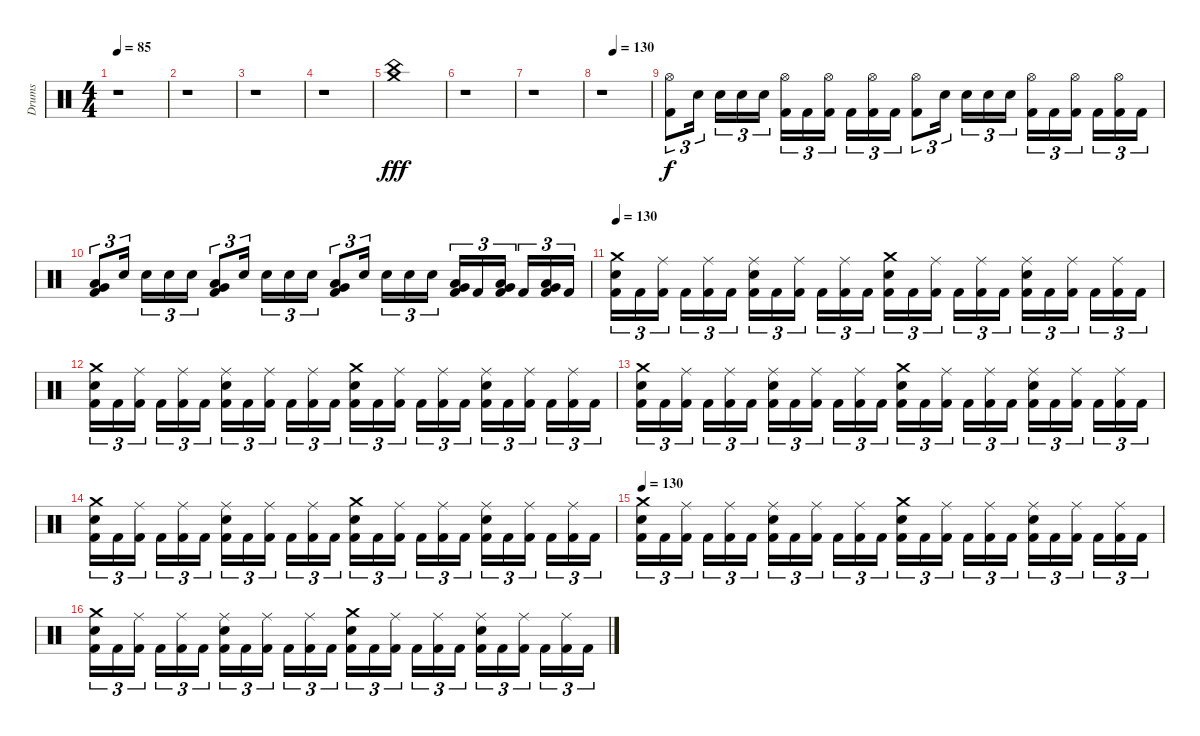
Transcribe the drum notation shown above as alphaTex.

\track ("Drums" "Drums") {instrument percussion}
\staff {score}
\articulation defaults
\ts (4 4)
\tempo 85
\clef neutral
\ks c
r.1{dy f} |
r.1 |
r.1 |
r.1 |
("Crash medium (hit)" "China (hit)").1{dy fff} |
r.1 |
r.1 |
\tempo (130 0.25)
r.1 |
("Kick (hit) 2" "Hi-Hat (open)").8{tu (3 2) dy f} "Electric Snare (hit)".16{tu (3 2)} "Electric Snare (hit)".16{tu (3 2)} "Electric Snare (hit)".16{tu (3 2)} "Electric Snare (hit)".16{tu (3 2)} ("Kick (hit) 2" "Hi-Hat (open)").16{tu (3 2)} "Kick (hit) 2".16{tu (3 2)} ("Kick (hit) 2" "Hi-Hat (open)").16{tu (3 2)} "Kick (hit) 2".16{tu (3 2)} ("Kick (hit) 2" "Hi-Hat (open)").16{tu (3 2)} "Kick (hit) 2".16{tu (3 2)} ("Kick (hit) 2" "Hi-Hat (open)").8{tu (3 2)} "Electric Snare (hit)".16{tu (3 2)} "Electric Snare (hit)".16{tu (3 2)} "Electric Snare (hit)".16{tu (3 2)} "Electric Snare (hit)".16{tu (3 2)} ("Kick (hit) 2" "Hi-Hat (open)").16{tu (3 2)} "Kick (hit) 2".16{tu (3 2)} ("Kick (hit) 2" "Hi-Hat (open)").16{tu (3 2)} "Kick (hit) 2".16{tu (3 2)} ("Kick (hit) 2" "Hi-Hat (open)").16{tu (3 2)} "Kick (hit) 2".16{tu (3 2)} |
("Kick (hit) 2" "Low Tom (hit)" "Very Low Tom (hit)").8{tu (3 2)} "Electric Snare (hit)".16{tu (3 2)} "Electric Snare (hit)".16{tu (3 2)} "Electric Snare (hit)".16{tu (3 2)} "Electric Snare (hit)".16{tu (3 2)} ("Kick (hit) 2" "Low Tom (hit)" "Very Low Tom (hit)").8{tu (3 2)} "Electric Snare (hit)".16{tu (3 2)} "Electric Snare (hit)".16{tu (3 2)} "Electric Snare (hit)".16{tu (3 2)} "Electric Snare (hit)".16{tu (3 2)} ("Kick (hit) 2" "Low Tom (hit)" "Very Low Tom (hit)").8{tu (3 2)} "Electric Snare (hit)".16{tu (3 2)} "Electric Snare (hit)".16{tu (3 2)} "Electric Snare (hit)".16{tu (3 2)} "Electric Snare (hit)".16{tu (3 2)} ("Kick (hit) 2" "Low Tom (hit)" "Very Low Tom (hit)").16{tu (3 2)} "Kick (hit) 2".16{tu (3 2)} ("Kick (hit) 2" "Low Tom (hit)" "Very Low Tom (hit)").16{tu (3 2)} "Kick (hit) 2".16{tu (3 2)} ("Kick (hit) 2" "Low Tom (hit)" "Very Low Tom (hit)").16{tu (3 2)} "Kick (hit) 2".16{tu (3 2)} |
\tempo 130
("Kick (hit) 2" "Electric Snare (hit)" "Crash medium (hit)").16{tu (3 2)} "Kick (hit) 2".16{tu (3 2)} ("Kick (hit) 2" "Ride (middle)").16{tu (3 2)} "Kick (hit) 2".16{tu (3 2)} ("Kick (hit) 2" "Ride (middle)").16{tu (3 2)} "Kick (hit) 2".16{tu (3 2)} ("Kick (hit) 2" "Electric Snare (hit)" "Ride (middle)").16{tu (3 2)} "Kick (hit) 2".16{tu (3 2)} ("Kick (hit) 2" "Ride (middle)").16{tu (3 2)} "Kick (hit) 2".16{tu (3 2)} ("Kick (hit) 2" "Ride (middle)").16{tu (3 2)} "Kick (hit) 2".16{tu (3 2)} ("Kick (hit) 2" "Electric Snare (hit)" "Crash medium (hit)").16{tu (3 2)} "Kick (hit) 2".16{tu (3 2)} ("Kick (hit) 2" "Ride (middle)").16{tu (3 2)} "Kick (hit) 2".16{tu (3 2)} ("Kick (hit) 2" "Ride (middle)").16{tu (3 2)} "Kick (hit) 2".16{tu (3 2)} ("Kick (hit) 2" "Electric Snare (hit)" "Ride (middle)").16{tu (3 2)} "Kick (hit) 2".16{tu (3 2)} ("Kick (hit) 2" "Ride (middle)").16{tu (3 2)} "Kick (hit) 2".16{tu (3 2)} ("Kick (hit) 2" "Ride (middle)").16{tu (3 2)} "Kick (hit) 2".16{tu (3 2)} |
("Kick (hit) 2" "Electric Snare (hit)" "Crash medium (hit)").16{tu (3 2)} "Kick (hit) 2".16{tu (3 2)} ("Kick (hit) 2" "Ride (middle)").16{tu (3 2)} "Kick (hit) 2".16{tu (3 2)} ("Kick (hit) 2" "Ride (middle)").16{tu (3 2)} "Kick (hit) 2".16{tu (3 2)} ("Kick (hit) 2" "Electric Snare (hit)" "Ride (middle)").16{tu (3 2)} "Kick (hit) 2".16{tu (3 2)} ("Kick (hit) 2" "Ride (middle)").16{tu (3 2)} "Kick (hit) 2".16{tu (3 2)} ("Kick (hit) 2" "Ride (middle)").16{tu (3 2)} "Kick (hit) 2".16{tu (3 2)} ("Kick (hit) 2" "Electric Snare (hit)" "Crash medium (hit)").16{tu (3 2)} "Kick (hit) 2".16{tu (3 2)} ("Kick (hit) 2" "Ride (middle)").16{tu (3 2)} "Kick (hit) 2".16{tu (3 2)} ("Kick (hit) 2" "Ride (middle)").16{tu (3 2)} "Kick (hit) 2".16{tu (3 2)} ("Kick (hit) 2" "Electric Snare (hit)" "Ride (middle)").16{tu (3 2)} "Kick (hit) 2".16{tu (3 2)} ("Kick (hit) 2" "Ride (middle)").16{tu (3 2)} "Kick (hit) 2".16{tu (3 2)} ("Kick (hit) 2" "Ride (middle)").16{tu (3 2)} "Kick (hit) 2".16{tu (3 2)} |
("Kick (hit) 2" "Electric Snare (hit)" "Crash medium (hit)").16{tu (3 2)} "Kick (hit) 2".16{tu (3 2)} ("Kick (hit) 2" "Ride (middle)").16{tu (3 2)} "Kick (hit) 2".16{tu (3 2)} ("Kick (hit) 2" "Ride (middle)").16{tu (3 2)} "Kick (hit) 2".16{tu (3 2)} ("Kick (hit) 2" "Electric Snare (hit)" "Ride (middle)").16{tu (3 2)} "Kick (hit) 2".16{tu (3 2)} ("Kick (hit) 2" "Ride (middle)").16{tu (3 2)} "Kick (hit) 2".16{tu (3 2)} ("Kick (hit) 2" "Ride (middle)").16{tu (3 2)} "Kick (hit) 2".16{tu (3 2)} ("Kick (hit) 2" "Electric Snare (hit)" "Crash medium (hit)").16{tu (3 2)} "Kick (hit) 2".16{tu (3 2)} ("Kick (hit) 2" "Ride (middle)").16{tu (3 2)} "Kick (hit) 2".16{tu (3 2)} ("Kick (hit) 2" "Ride (middle)").16{tu (3 2)} "Kick (hit) 2".16{tu (3 2)} ("Kick (hit) 2" "Electric Snare (hit)" "Ride (middle)").16{tu (3 2)} "Kick (hit) 2".16{tu (3 2)} ("Kick (hit) 2" "Ride (middle)").16{tu (3 2)} "Kick (hit) 2".16{tu (3 2)} ("Kick (hit) 2" "Ride (middle)").16{tu (3 2)} "Kick (hit) 2".16{tu (3 2)} |
("Kick (hit) 2" "Electric Snare (hit)" "Crash medium (hit)").16{tu (3 2)} "Kick (hit) 2".16{tu (3 2)} ("Kick (hit) 2" "Ride (middle)").16{tu (3 2)} "Kick (hit) 2".16{tu (3 2)} ("Kick (hit) 2" "Ride (middle)").16{tu (3 2)} "Kick (hit) 2".16{tu (3 2)} ("Kick (hit) 2" "Electric Snare (hit)" "Ride (middle)").16{tu (3 2)} "Kick (hit) 2".16{tu (3 2)} ("Kick (hit) 2" "Ride (middle)").16{tu (3 2)} "Kick (hit) 2".16{tu (3 2)} ("Kick (hit) 2" "Ride (middle)").16{tu (3 2)} "Kick (hit) 2".16{tu (3 2)} ("Kick (hit) 2" "Electric Snare (hit)" "Crash medium (hit)").16{tu (3 2)} "Kick (hit) 2".16{tu (3 2)} ("Kick (hit) 2" "Ride (middle)").16{tu (3 2)} "Kick (hit) 2".16{tu (3 2)} ("Kick (hit) 2" "Ride (middle)").16{tu (3 2)} "Kick (hit) 2".16{tu (3 2)} ("Kick (hit) 2" "Electric Snare (hit)" "Ride (middle)").16{tu (3 2)} "Kick (hit) 2".16{tu (3 2)} ("Kick (hit) 2" "Ride (middle)").16{tu (3 2)} "Kick (hit) 2".16{tu (3 2)} ("Kick (hit) 2" "Ride (middle)").16{tu (3 2)} "Kick (hit) 2".16{tu (3 2)} |
\tempo 130
("Kick (hit) 2" "Electric Snare (hit)" "Crash medium (hit)").16{tu (3 2)} "Kick (hit) 2".16{tu (3 2)} ("Kick (hit) 2" "Ride (middle)").16{tu (3 2)} "Kick (hit) 2".16{tu (3 2)} ("Kick (hit) 2" "Ride (middle)").16{tu (3 2)} "Kick (hit) 2".16{tu (3 2)} ("Kick (hit) 2" "Electric Snare (hit)" "Ride (middle)").16{tu (3 2)} "Kick (hit) 2".16{tu (3 2)} ("Kick (hit) 2" "Ride (middle)").16{tu (3 2)} "Kick (hit) 2".16{tu (3 2)} ("Kick (hit) 2" "Ride (middle)").16{tu (3 2)} "Kick (hit) 2".16{tu (3 2)} ("Kick (hit) 2" "Electric Snare (hit)" "Crash medium (hit)").16{tu (3 2)} "Kick (hit) 2".16{tu (3 2)} ("Kick (hit) 2" "Ride (middle)").16{tu (3 2)} "Kick (hit) 2".16{tu (3 2)} ("Kick (hit) 2" "Ride (middle)").16{tu (3 2)} "Kick (hit) 2".16{tu (3 2)} ("Kick (hit) 2" "Electric Snare (hit)" "Ride (middle)").16{tu (3 2)} "Kick (hit) 2".16{tu (3 2)} ("Kick (hit) 2" "Ride (middle)").16{tu (3 2)} "Kick (hit) 2".16{tu (3 2)} ("Kick (hit) 2" "Ride (middle)").16{tu (3 2)} "Kick (hit) 2".16{tu (3 2)} |
("Kick (hit) 2" "Electric Snare (hit)" "Crash medium (hit)").16{tu (3 2)} "Kick (hit) 2".16{tu (3 2)} ("Kick (hit) 2" "Ride (middle)").16{tu (3 2)} "Kick (hit) 2".16{tu (3 2)} ("Kick (hit) 2" "Ride (middle)").16{tu (3 2)} "Kick (hit) 2".16{tu (3 2)} ("Kick (hit) 2" "Electric Snare (hit)" "Ride (middle)").16{tu (3 2)} "Kick (hit) 2".16{tu (3 2)} ("Kick (hit) 2" "Ride (middle)").16{tu (3 2)} "Kick (hit) 2".16{tu (3 2)} ("Kick (hit) 2" "Ride (middle)").16{tu (3 2)} "Kick (hit) 2".16{tu (3 2)} ("Kick (hit) 2" "Electric Snare (hit)" "Crash medium (hit)").16{tu (3 2)} "Kick (hit) 2".16{tu (3 2)} ("Kick (hit) 2" "Ride (middle)").16{tu (3 2)} "Kick (hit) 2".16{tu (3 2)} ("Kick (hit) 2" "Ride (middle)").16{tu (3 2)} "Kick (hit) 2".16{tu (3 2)} ("Kick (hit) 2" "Electric Snare (hit)" "Ride (middle)").16{tu (3 2)} "Kick (hit) 2".16{tu (3 2)} ("Kick (hit) 2" "Ride (middle)").16{tu (3 2)} "Kick (hit) 2".16{tu (3 2)} ("Kick (hit) 2" "Ride (middle)").16{tu (3 2)} "Kick (hit) 2".16{tu (3 2)}
